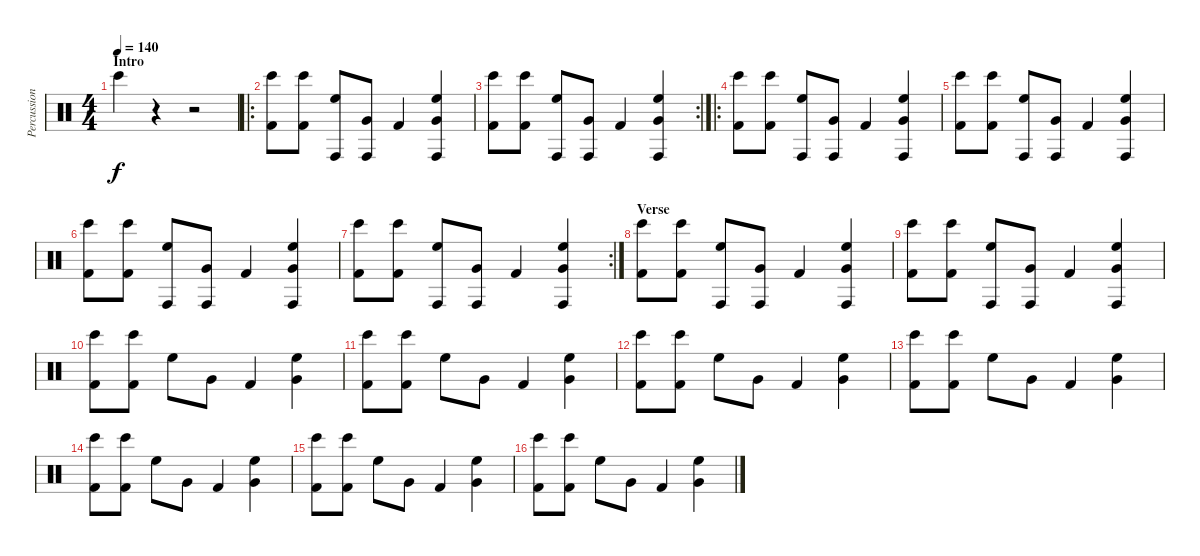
\track ("Percussion" "Percussion") {instrument percussion}
\staff {score}
\articulation defaults
\ts (4 4)
\section ("" "Intro")
\tempo 140
\clef neutral
\ks c "Bongo High (hit)".4{dy f}
r.4 r.2 |
\ro
("Bongo High (hit)" "Kick (hit) 2").8 ("Bongo High (hit)" "Kick (hit) 2").8 ("Conga high (hit)" "High Floor Tom (hit)").8 ("Conga high (hit)" "Very Low Tom (hit)").8 "Kick (hit) 2".4 ("Conga high (hit)" "High Floor Tom (hit)" "Very Low Tom (hit)").4 |
\rc 2
("Bongo High (hit)" "Kick (hit) 2").8 ("Bongo High (hit)" "Kick (hit) 2").8 ("Conga high (hit)" "High Floor Tom (hit)").8 ("Conga high (hit)" "Very Low Tom (hit)").8 "Kick (hit) 2".4 ("Conga high (hit)" "High Floor Tom (hit)" "Very Low Tom (hit)").4 |
\ro
("Bongo High (hit)" "Kick (hit) 2").8 ("Bongo High (hit)" "Kick (hit) 2").8 ("Conga high (hit)" "High Floor Tom (hit)").8 ("Conga high (hit)" "Very Low Tom (hit)").8 "Kick (hit) 2".4 ("Conga high (hit)" "High Floor Tom (hit)" "Very Low Tom (hit)").4 |
("Bongo High (hit)" "Kick (hit) 2").8 ("Bongo High (hit)" "Kick (hit) 2").8 ("Conga high (hit)" "High Floor Tom (hit)").8 ("Conga high (hit)" "Very Low Tom (hit)").8 "Kick (hit) 2".4 ("Conga high (hit)" "High Floor Tom (hit)" "Very Low Tom (hit)").4 |
("Bongo High (hit)" "Kick (hit) 2").8 ("Bongo High (hit)" "Kick (hit) 2").8 ("Conga high (hit)" "High Floor Tom (hit)").8 ("Conga high (hit)" "Very Low Tom (hit)").8 "Kick (hit) 2".4 ("Conga high (hit)" "High Floor Tom (hit)" "Very Low Tom (hit)").4 |
\rc 2
("Bongo High (hit)" "Kick (hit) 2").8 ("Bongo High (hit)" "Kick (hit) 2").8 ("Conga high (hit)" "High Floor Tom (hit)").8 ("Conga high (hit)" "Very Low Tom (hit)").8 "Kick (hit) 2".4 ("Conga high (hit)" "High Floor Tom (hit)" "Very Low Tom (hit)").4 |
\section ("" "Verse")
("Bongo High (hit)" "Kick (hit) 2").8 ("Bongo High (hit)" "Kick (hit) 2").8 ("Conga high (hit)" "High Floor Tom (hit)").8 ("Conga high (hit)" "Very Low Tom (hit)").8 "Kick (hit) 2".4 ("Conga high (hit)" "High Floor Tom (hit)" "Very Low Tom (hit)").4 |
("Bongo High (hit)" "Kick (hit) 2").8 ("Bongo High (hit)" "Kick (hit) 2").8 ("Conga high (hit)" "High Floor Tom (hit)").8 ("Conga high (hit)" "Very Low Tom (hit)").8 "Kick (hit) 2".4 ("Conga high (hit)" "High Floor Tom (hit)" "Very Low Tom (hit)").4 |
("Bongo High (hit)" "Kick (hit) 2").8 ("Bongo High (hit)" "Kick (hit) 2").8 "High Floor Tom (hit)".8 "Very Low Tom (hit)".8 "Kick (hit) 2".4 ("High Floor Tom (hit)" "Very Low Tom (hit)").4 |
("Bongo High (hit)" "Kick (hit) 2").8 ("Bongo High (hit)" "Kick (hit) 2").8 "High Floor Tom (hit)".8 "Very Low Tom (hit)".8 "Kick (hit) 2".4 ("High Floor Tom (hit)" "Very Low Tom (hit)").4 |
("Bongo High (hit)" "Kick (hit) 2").8 ("Bongo High (hit)" "Kick (hit) 2").8 "High Floor Tom (hit)".8 "Very Low Tom (hit)".8 "Kick (hit) 2".4 ("High Floor Tom (hit)" "Very Low Tom (hit)").4 |
("Bongo High (hit)" "Kick (hit) 2").8 ("Bongo High (hit)" "Kick (hit) 2").8 "High Floor Tom (hit)".8 "Very Low Tom (hit)".8 "Kick (hit) 2".4 ("High Floor Tom (hit)" "Very Low Tom (hit)").4 |
("Bongo High (hit)" "Kick (hit) 2").8 ("Bongo High (hit)" "Kick (hit) 2").8 "High Floor Tom (hit)".8 "Very Low Tom (hit)".8 "Kick (hit) 2".4 ("High Floor Tom (hit)" "Very Low Tom (hit)").4 |
("Bongo High (hit)" "Kick (hit) 2").8 ("Bongo High (hit)" "Kick (hit) 2").8 "High Floor Tom (hit)".8 "Very Low Tom (hit)".8 "Kick (hit) 2".4 ("High Floor Tom (hit)" "Very Low Tom (hit)").4 |
("Bongo High (hit)" "Kick (hit) 2").8 ("Bongo High (hit)" "Kick (hit) 2").8 "High Floor Tom (hit)".8 "Very Low Tom (hit)".8 "Kick (hit) 2".4 ("High Floor Tom (hit)" "Very Low Tom (hit)").4
